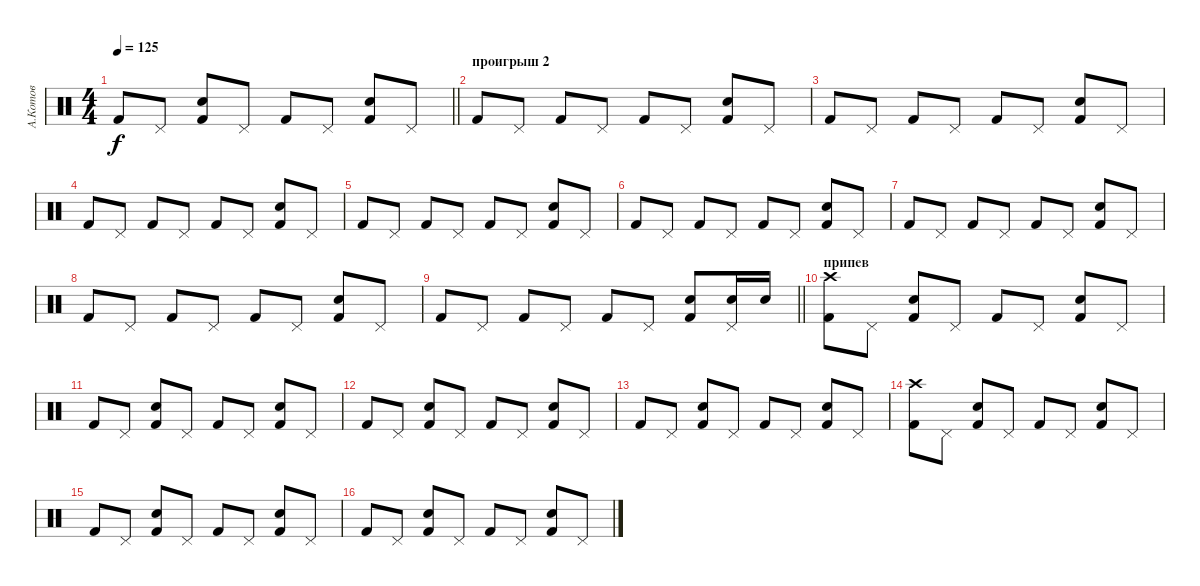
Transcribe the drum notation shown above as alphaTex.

\track ("А.Котов" "А.Котов") {instrument percussion}
\staff {score}
\articulation defaults
\ts (4 4)
\tempo 125
\clef neutral
\barLineRight lightlight
\ks c "Kick (hit) 2".8{dy f} "Pedal Hi-Hat (hit)".8
("Kick (hit) 2" "Snare (hit) 2").8 "Pedal Hi-Hat (hit)".8 "Kick (hit) 2".8 "Pedal Hi-Hat (hit)".8 ("Kick (hit) 2" "Snare (hit) 2").8 "Pedal Hi-Hat (hit)".8 |
\section ("" "проигрыш 2")
"Kick (hit) 2".8 "Pedal Hi-Hat (hit)".8 "Kick (hit) 2".8 "Pedal Hi-Hat (hit)".8 "Kick (hit) 2".8 "Pedal Hi-Hat (hit)".8 ("Kick (hit) 2" "Snare (hit) 2").8 "Pedal Hi-Hat (hit)".8 |
"Kick (hit) 2".8 "Pedal Hi-Hat (hit)".8 "Kick (hit) 2".8 "Pedal Hi-Hat (hit)".8 "Kick (hit) 2".8 "Pedal Hi-Hat (hit)".8 ("Kick (hit) 2" "Snare (hit) 2").8 "Pedal Hi-Hat (hit)".8 |
"Kick (hit) 2".8 "Pedal Hi-Hat (hit)".8 "Kick (hit) 2".8 "Pedal Hi-Hat (hit)".8 "Kick (hit) 2".8 "Pedal Hi-Hat (hit)".8 ("Kick (hit) 2" "Snare (hit) 2").8 "Pedal Hi-Hat (hit)".8 |
"Kick (hit) 2".8 "Pedal Hi-Hat (hit)".8 "Kick (hit) 2".8 "Pedal Hi-Hat (hit)".8 "Kick (hit) 2".8 "Pedal Hi-Hat (hit)".8 ("Kick (hit) 2" "Snare (hit) 2").8 "Pedal Hi-Hat (hit)".8 |
"Kick (hit) 2".8 "Pedal Hi-Hat (hit)".8 "Kick (hit) 2".8 "Pedal Hi-Hat (hit)".8 "Kick (hit) 2".8 "Pedal Hi-Hat (hit)".8 ("Kick (hit) 2" "Snare (hit) 2").8 "Pedal Hi-Hat (hit)".8 |
"Kick (hit) 2".8 "Pedal Hi-Hat (hit)".8 "Kick (hit) 2".8 "Pedal Hi-Hat (hit)".8 "Kick (hit) 2".8 "Pedal Hi-Hat (hit)".8 ("Kick (hit) 2" "Snare (hit) 2").8 "Pedal Hi-Hat (hit)".8 |
"Kick (hit) 2".8 "Pedal Hi-Hat (hit)".8 "Kick (hit) 2".8 "Pedal Hi-Hat (hit)".8 "Kick (hit) 2".8 "Pedal Hi-Hat (hit)".8 ("Kick (hit) 2" "Snare (hit) 2").8 "Pedal Hi-Hat (hit)".8 |
\barLineRight lightlight "Kick (hit) 2".8 "Pedal Hi-Hat (hit)".8 "Kick (hit) 2".8 "Pedal Hi-Hat (hit)".8 "Kick (hit) 2".8 "Pedal Hi-Hat (hit)".8
("Kick (hit) 2" "Snare (hit) 2").8 ("Pedal Hi-Hat (hit)" "Snare (hit) 2").16 "Snare (hit) 2".16 |
\section ("" "припев")
("Kick (hit) 2" "Crash high (hit)").8 "Pedal Hi-Hat (hit)".8 ("Kick (hit) 2" "Snare (hit) 2").8 "Pedal Hi-Hat (hit)".8 "Kick (hit) 2".8 "Pedal Hi-Hat (hit)".8 ("Kick (hit) 2" "Snare (hit) 2").8 "Pedal Hi-Hat (hit)".8 |
"Kick (hit) 2".8 "Pedal Hi-Hat (hit)".8 ("Kick (hit) 2" "Snare (hit) 2").8 "Pedal Hi-Hat (hit)".8 "Kick (hit) 2".8 "Pedal Hi-Hat (hit)".8 ("Kick (hit) 2" "Snare (hit) 2").8 "Pedal Hi-Hat (hit)".8 |
"Kick (hit) 2".8 "Pedal Hi-Hat (hit)".8 ("Kick (hit) 2" "Snare (hit) 2").8 "Pedal Hi-Hat (hit)".8 "Kick (hit) 2".8 "Pedal Hi-Hat (hit)".8 ("Kick (hit) 2" "Snare (hit) 2").8 "Pedal Hi-Hat (hit)".8 |
"Kick (hit) 2".8 "Pedal Hi-Hat (hit)".8 ("Kick (hit) 2" "Snare (hit) 2").8 "Pedal Hi-Hat (hit)".8 "Kick (hit) 2".8 "Pedal Hi-Hat (hit)".8 ("Kick (hit) 2" "Snare (hit) 2").8 "Pedal Hi-Hat (hit)".8 |
("Kick (hit) 2" "Crash high (hit)").8 "Pedal Hi-Hat (hit)".8 ("Kick (hit) 2" "Snare (hit) 2").8 "Pedal Hi-Hat (hit)".8 "Kick (hit) 2".8 "Pedal Hi-Hat (hit)".8 ("Kick (hit) 2" "Snare (hit) 2").8 "Pedal Hi-Hat (hit)".8 |
"Kick (hit) 2".8 "Pedal Hi-Hat (hit)".8 ("Kick (hit) 2" "Snare (hit) 2").8 "Pedal Hi-Hat (hit)".8 "Kick (hit) 2".8 "Pedal Hi-Hat (hit)".8 ("Kick (hit) 2" "Snare (hit) 2").8 "Pedal Hi-Hat (hit)".8 |
"Kick (hit) 2".8 "Pedal Hi-Hat (hit)".8 ("Kick (hit) 2" "Snare (hit) 2").8 "Pedal Hi-Hat (hit)".8 "Kick (hit) 2".8 "Pedal Hi-Hat (hit)".8 ("Kick (hit) 2" "Snare (hit) 2").8 "Pedal Hi-Hat (hit)".8
